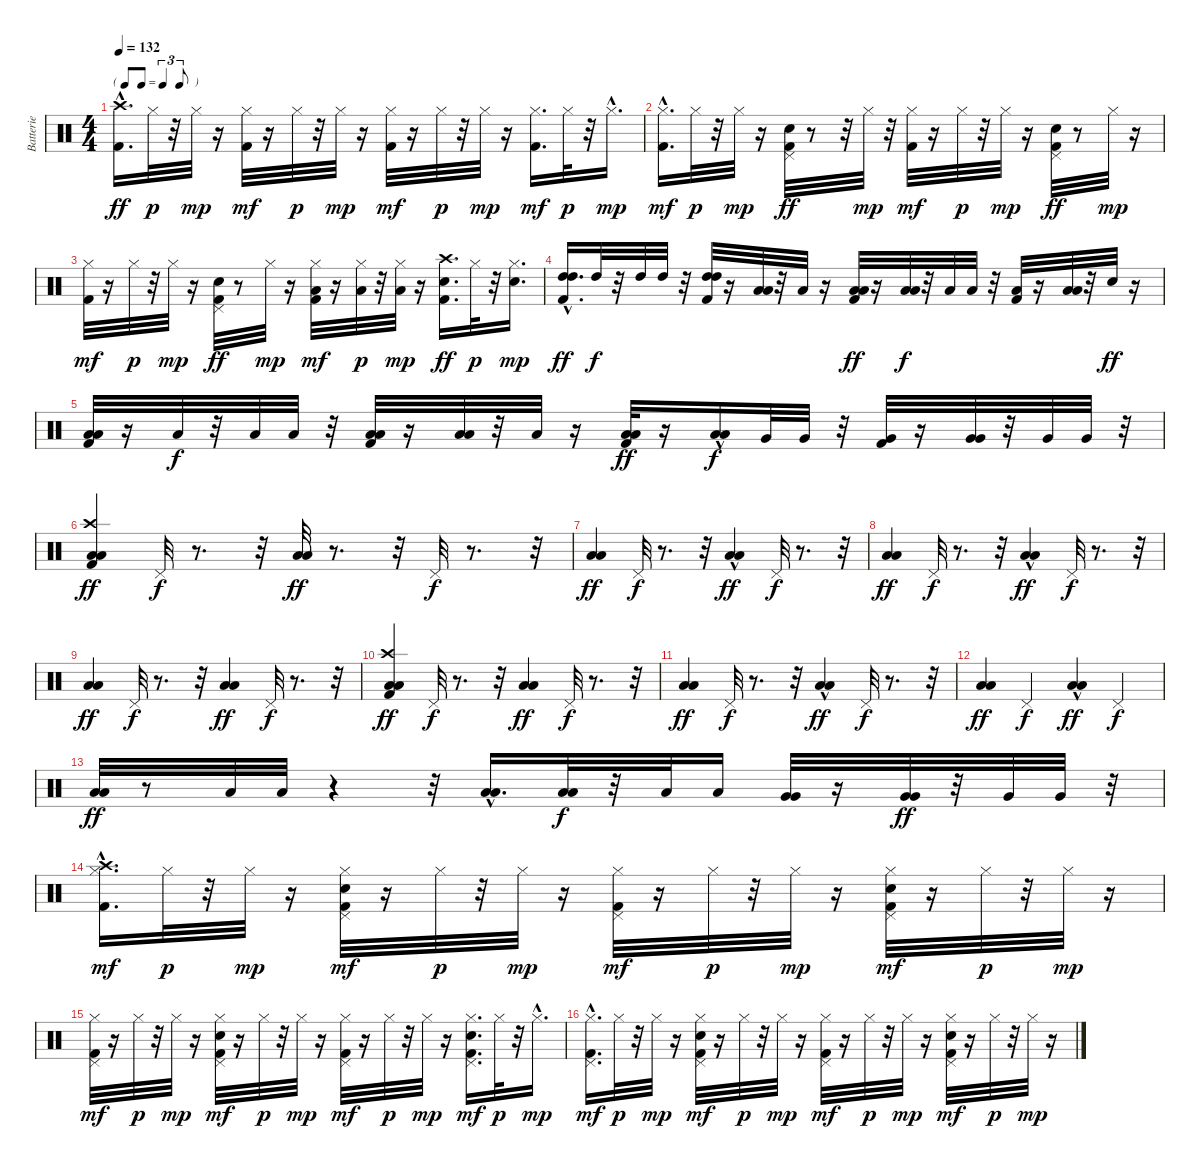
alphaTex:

\track ("Batterie" "Batterie") {instrument percussion}
\staff {score}
\articulation defaults
\ts (4 4)
\tf triplet8th
\tempo 132
\clef neutral
\ks c
("Kick (hit) 2"{hac} "Crash high (hit)"{hac}).16{d dy ff} "Hi-Hat (closed)".32{dy p} r.32 "Hi-Hat (closed)".32{dy mp} r.16 ("Kick (hit) 2" "Hi-Hat (closed)").32{dy mf} r.16 "Hi-Hat (closed)".32{dy p} r.32 "Hi-Hat (closed)".32{dy mp} r.16 ("Kick (hit) 2" "Hi-Hat (closed)").32{dy mf} r.16 "Hi-Hat (closed)".32{dy p} r.32 "Hi-Hat (closed)".32{dy mp} r.16 ("Kick (hit) 2" "Hi-Hat (closed)").16{d dy mf} "Hi-Hat (closed)".32{dy p} r.32 "Hi-Hat (closed)"{hac}.16{d dy mp} |
("Kick (hit) 2"{hac} "Hi-Hat (closed)"{hac}).16{d dy mf} "Hi-Hat (closed)".32{dy p} r.32 "Hi-Hat (closed)".32{dy mp} r.16 ("Kick (hit) 2" "Snare (hit) 2" "Pedal Hi-Hat (hit)").32{dy ff} r.8 r.32 "Hi-Hat (closed)".32{dy mp} r.32 ("Kick (hit) 2" "Hi-Hat (closed)").32{dy mf} r.16 "Hi-Hat (closed)".32{dy p} r.32 "Hi-Hat (closed)".32{dy mp} r.16 ("Kick (hit) 2" "Snare (hit) 2" "Pedal Hi-Hat (hit)").32{dy ff} r.8 "Hi-Hat (closed)".32{dy mp} r.16 |
("Kick (hit) 2" "Hi-Hat (closed)").32{dy mf} r.16 "Hi-Hat (closed)".32{dy p} r.32 "Hi-Hat (closed)".32{dy mp} r.16 ("Kick (hit) 2" "Snare (hit) 2" "Pedal Hi-Hat (hit)").32{dy ff} r.8 "Hi-Hat (closed)".32{dy mp} r.16 ("Kick (hit) 2" "Hi-Hat (closed)" "Low Tom (hit)").32{dy mf} r.16 ("Hi-Hat (closed)" "Low Tom (hit)").32{dy p} r.32 ("Hi-Hat (closed)" "Low Tom (hit)").32{dy mp} r.16 ("Kick (hit) 2" "Snare (hit) 2" "Crash high (hit)").16{d dy ff} "Hi-Hat (closed)".32{dy p} r.32 ("Snare (hit) 2" "Hi-Hat (closed)").16{d dy mp} |
("Kick (hit) 2" "High Tom (hit)" "High Tom (hit)"{hac}).16{d dy ff} "High Tom (hit)".32{dy f} r.32 "High Tom (hit)".32 "High Tom (hit)".32 r.32 ("Kick (hit) 2" "High Tom (hit)" "High Tom (hit)").32 r.16 ("Low Tom (hit)" "Low Tom (hit)").32 r.32 "Low Tom (hit)".32 r.16 ("Kick (hit) 2" "Low Tom (hit)" "Low Tom (hit)").32{dy ff} r.16 ("Low Tom (hit)" "Low Tom (hit)").32{dy f} r.32 "Low Floor Tom (hit)".32 "Low Floor Tom (hit)".32 r.32 ("Kick (hit) 2" "Low Floor Tom (hit)").32 r.16 ("Low Floor Tom (hit)" "Low Floor Tom (hit)").32 r.32 "Snare (hit) 2".32{dy ff} r.16 |
("Kick (hit) 2" "Low Tom (hit)" "Low Tom (hit)").32 r.16 "Low Tom (hit)".32{dy f} r.32 "Low Tom (hit)".32 "Low Tom (hit)".32 r.32 ("Kick (hit) 2" "Low Tom (hit)" "Low Tom (hit)").32 r.16 ("Low Floor Tom (hit)" "Low Floor Tom (hit)").32 r.32 "Low Floor Tom (hit)".32 r.16 ("Kick (hit) 2" "Low Floor Tom (hit)" "Low Floor Tom (hit)").32{dy ff} r.16 ("Low Floor Tom (hit)" "Low Floor Tom (hit)"{hac}).16{dy f} "Very Low Tom (hit)".32 "Very Low Tom (hit)".32 r.32 ("Kick (hit) 2" "Very Low Tom (hit)").32 r.16 ("Very Low Tom (hit)" "Very Low Tom (hit)").32 r.32 "Very Low Tom (hit)".32 "Very Low Tom (hit)".32 r.32 |
("Kick (hit) 2" "Low Floor Tom (hit)" "Crash high (hit)" "Low Floor Tom (hit)").4{dy ff} "Pedal Hi-Hat (hit)".32{dy f} r.8{d} r.32 ("Low Floor Tom (hit)" "Low Floor Tom (hit)").32{dy ff} r.8{d} r.32 "Pedal Hi-Hat (hit)".32{dy f} r.8{d} r.32 |
("Low Floor Tom (hit)" "Low Floor Tom (hit)").4{dy ff} "Pedal Hi-Hat (hit)".32{dy f} r.8{d} r.32 ("Low Floor Tom (hit)" "Low Floor Tom (hit)"{hac}).4{dy ff} "Pedal Hi-Hat (hit)".32{dy f} r.8{d} r.32 |
("Low Floor Tom (hit)" "Low Floor Tom (hit)").4{dy ff} "Pedal Hi-Hat (hit)".32{dy f} r.8{d} r.32 ("Low Floor Tom (hit)" "Low Floor Tom (hit)"{hac}).4{dy ff} "Pedal Hi-Hat (hit)".32{dy f} r.8{d} r.32 |
("Low Floor Tom (hit)" "Low Floor Tom (hit)").4{dy ff} "Pedal Hi-Hat (hit)".32{dy f} r.8{d} r.32 ("Low Floor Tom (hit)" "Low Floor Tom (hit)").4{dy ff} "Pedal Hi-Hat (hit)".32{dy f} r.8{d} r.32 |
("Kick (hit) 2" "Low Floor Tom (hit)" "Crash high (hit)" "Low Floor Tom (hit)").4{dy ff} "Pedal Hi-Hat (hit)".32{dy f} r.8{d} r.32 ("Low Floor Tom (hit)" "Low Floor Tom (hit)").4{dy ff} "Pedal Hi-Hat (hit)".32{dy f} r.8{d} r.32 |
("Low Floor Tom (hit)" "Low Floor Tom (hit)").4{dy ff} "Pedal Hi-Hat (hit)".32{dy f} r.8{d} r.32 ("Low Floor Tom (hit)" "Low Floor Tom (hit)"{hac}).4{dy ff} "Pedal Hi-Hat (hit)".32{dy f} r.8{d} r.32 |
("Low Floor Tom (hit)" "Low Floor Tom (hit)").4{dy ff} "Pedal Hi-Hat (hit)".4{dy f} ("Low Floor Tom (hit)" "Low Floor Tom (hit)"{hac}).4{dy ff} "Pedal Hi-Hat (hit)".4{dy f} |
("Low Tom (hit)" "Low Tom (hit)").32{dy ff} r.8 "Low Tom (hit)".32 "Low Tom (hit)".32 r.4 r.32 ("Low Tom (hit)" "Low Tom (hit)"{hac}).16{d} ("Low Floor Tom (hit)" "Low Floor Tom (hit)").32{dy f} r.32 "Low Floor Tom (hit)".32 "Low Floor Tom (hit)".16 ("Very Low Tom (hit)" "Very Low Tom (hit)").32 r.16 ("Very Low Tom (hit)" "Very Low Tom (hit)").32{dy ff} r.32 "Very Low Tom (hit)".32 "Very Low Tom (hit)".32 r.32 |
("Kick (hit) 2"{hac} "Hi-Hat (closed)"{hac} "Crash high (hit)"{hac}).16{d dy mf} "Hi-Hat (closed)".32{dy p} r.32 "Hi-Hat (closed)".32{dy mp} r.16 ("Kick (hit) 2" "Snare (hit) 2" "Hi-Hat (closed)" "Pedal Hi-Hat (hit)").32{dy mf} r.16 "Hi-Hat (closed)".32{dy p} r.32 "Hi-Hat (closed)".32{dy mp} r.16 ("Kick (hit) 2" "Hi-Hat (closed)" "Pedal Hi-Hat (hit)").32{dy mf} r.16 "Hi-Hat (closed)".32{dy p} r.32 "Hi-Hat (closed)".32{dy mp} r.16 ("Kick (hit) 2" "Snare (hit) 2" "Hi-Hat (closed)" "Pedal Hi-Hat (hit)").32{dy mf} r.16 "Hi-Hat (closed)".32{dy p} r.32 "Hi-Hat (closed)".32{dy mp} r.16 |
("Kick (hit) 2" "Hi-Hat (closed)" "Pedal Hi-Hat (hit)").32{dy mf} r.16 "Hi-Hat (closed)".32{dy p} r.32 "Hi-Hat (closed)".32{dy mp} r.16 ("Kick (hit) 2" "Snare (hit) 2" "Hi-Hat (closed)" "Pedal Hi-Hat (hit)").32{dy mf} r.16 "Hi-Hat (closed)".32{dy p} r.32 "Hi-Hat (closed)".32{dy mp} r.16 ("Kick (hit) 2" "Hi-Hat (closed)" "Pedal Hi-Hat (hit)").32{dy mf} r.16 "Hi-Hat (closed)".32{dy p} r.32 "Hi-Hat (closed)".32{dy mp} r.16 ("Kick (hit) 2" "Snare (hit) 2" "Hi-Hat (closed)" "Pedal Hi-Hat (hit)").16{d dy mf} "Hi-Hat (closed)".32{dy p} r.32 "Hi-Hat (closed)"{hac}.16{d dy mp} |
("Kick (hit) 2"{hac} "Hi-Hat (closed)"{hac} "Pedal Hi-Hat (hit)"{hac}).16{d dy mf} "Hi-Hat (closed)".32{dy p} r.32 "Hi-Hat (closed)".32{dy mp} r.16 ("Kick (hit) 2" "Snare (hit) 2" "Hi-Hat (closed)" "Pedal Hi-Hat (hit)").32{dy mf} r.16 "Hi-Hat (closed)".32{dy p} r.32 "Hi-Hat (closed)".32{dy mp} r.16 ("Kick (hit) 2" "Hi-Hat (closed)" "Pedal Hi-Hat (hit)").32{dy mf} r.16 "Hi-Hat (closed)".32{dy p} r.32 "Hi-Hat (closed)".32{dy mp} r.16 ("Kick (hit) 2" "Snare (hit) 2" "Hi-Hat (closed)" "Pedal Hi-Hat (hit)").32{dy mf} r.16 "Hi-Hat (closed)".32{dy p} r.32 "Hi-Hat (closed)".32{dy mp} r.16
